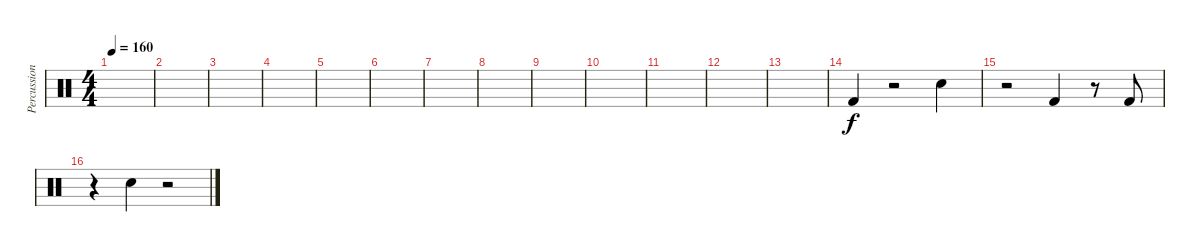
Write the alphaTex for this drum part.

\track ("Percussions" "Percussion") {instrument percussion}
\staff {score}
\articulation defaults
\ts (4 4)
\tempo 160
\clef neutral
\ks c
|
|
|
|
|
|
|
|
|
|
|
|
|
"Kick (hit) 2".4 r.2 "Hand Clap (hit)".4 |
r.2 "Kick (hit) 2".4 r.8 "Kick (hit) 2".8 |
r.4 "Hand Clap (hit)".4 r.2
